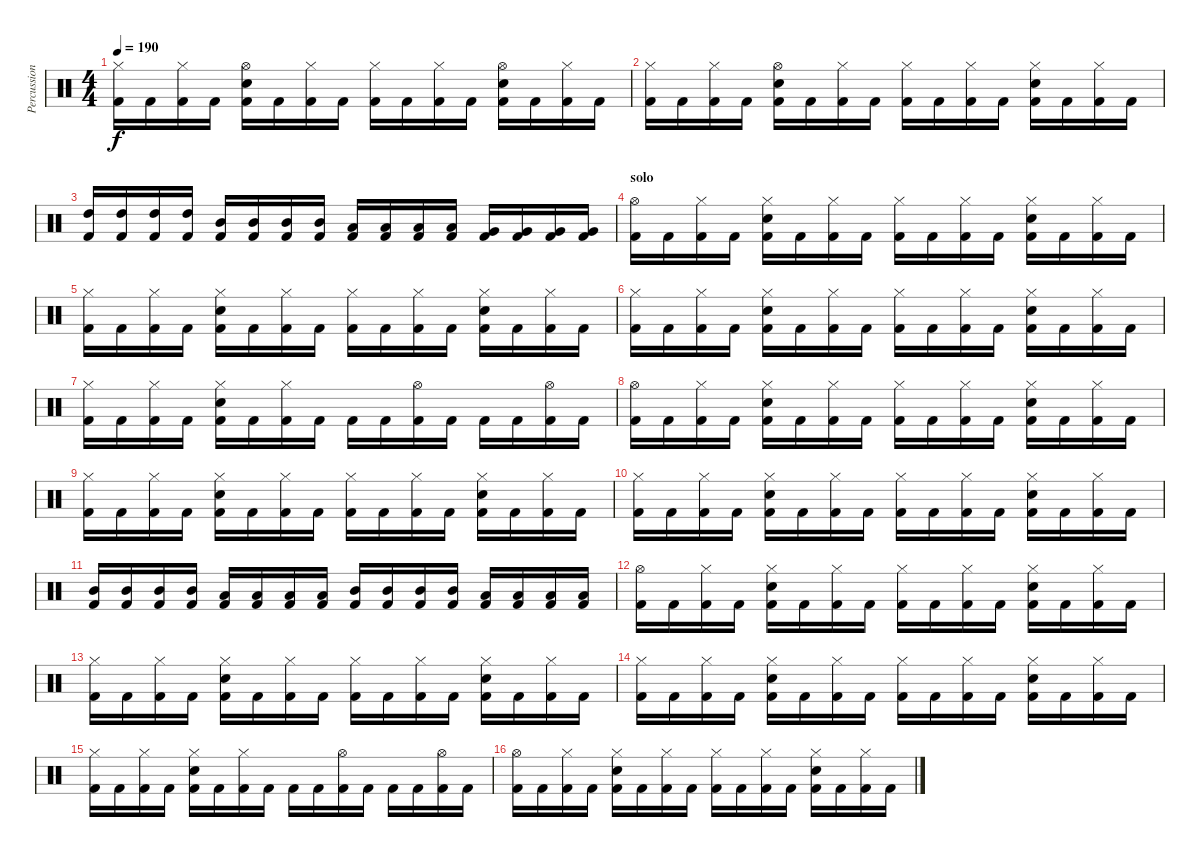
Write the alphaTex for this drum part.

\track ("Percussion" "Percussion") {instrument percussion}
\staff {score}
\articulation defaults
\ts (4 4)
\tempo 190
\clef neutral
\ks c
("Hi-Hat (closed)" "Kick (hit) 2").16{dy f} "Kick (hit) 2".16 ("Hi-Hat (closed)" "Kick (hit) 2").16 "Kick (hit) 2".16 ("Hi-Hat (open)" "Snare (hit) 2" "Kick (hit) 2").16 "Kick (hit) 2".16 ("Hi-Hat (closed)" "Kick (hit) 2").16 "Kick (hit) 2".16 ("Hi-Hat (closed)" "Kick (hit) 2").16 "Kick (hit) 2".16 ("Hi-Hat (closed)" "Kick (hit) 2").16 "Kick (hit) 2".16 ("Hi-Hat (open)" "Snare (hit) 2" "Kick (hit) 2").16 "Kick (hit) 2".16 ("Hi-Hat (closed)" "Kick (hit) 2").16 "Kick (hit) 2".16 |
("Hi-Hat (closed)" "Kick (hit) 2").16 "Kick (hit) 2".16 ("Hi-Hat (closed)" "Kick (hit) 2").16 "Kick (hit) 2".16 ("Hi-Hat (open)" "Snare (hit) 2" "Kick (hit) 2").16 "Kick (hit) 2".16 ("Hi-Hat (closed)" "Kick (hit) 2").16 "Kick (hit) 2".16 ("Hi-Hat (closed)" "Kick (hit) 2").16 "Kick (hit) 2".16 ("Hi-Hat (closed)" "Kick (hit) 2").16 "Kick (hit) 2".16 ("Hi-Hat (closed)" "Snare (hit) 2" "Kick (hit) 2").16 "Kick (hit) 2".16 ("Hi-Hat (closed)" "Kick (hit) 2").16 "Kick (hit) 2".16 |
("High Tom (hit)" "Kick (hit) 2").16 ("High Tom (hit)" "Kick (hit) 2").16 ("High Tom (hit)" "Kick (hit) 2").16 ("High Tom (hit)" "Kick (hit) 2").16 ("Mid Tom (hit)" "Kick (hit) 2").16 ("Mid Tom (hit)" "Kick (hit) 2").16 ("Mid Tom (hit)" "Kick (hit) 2").16 ("Mid Tom (hit)" "Kick (hit) 2").16 ("Low Tom (hit)" "Kick (hit) 2").16 ("Low Tom (hit)" "Kick (hit) 2").16 ("Low Tom (hit)" "Kick (hit) 2").16 ("Low Tom (hit)" "Kick (hit) 2").16 ("Very Low Tom (hit)" "Kick (hit) 2").16 ("Very Low Tom (hit)" "Kick (hit) 2").16 ("Very Low Tom (hit)" "Kick (hit) 2").16 ("Very Low Tom (hit)" "Kick (hit) 2").16 |
\section ("" "solo")
("Hi-Hat (open)" "Kick (hit) 2").16 "Kick (hit) 2".16 ("Hi-Hat (closed)" "Kick (hit) 2").16 "Kick (hit) 2".16 ("Hi-Hat (closed)" "Snare (hit) 2" "Kick (hit) 2").16 "Kick (hit) 2".16 ("Hi-Hat (closed)" "Kick (hit) 2").16 "Kick (hit) 2".16 ("Hi-Hat (closed)" "Kick (hit) 2").16 "Kick (hit) 2".16 ("Hi-Hat (closed)" "Kick (hit) 2").16 "Kick (hit) 2".16 ("Hi-Hat (closed)" "Snare (hit) 2" "Kick (hit) 2").16 "Kick (hit) 2".16 ("Hi-Hat (closed)" "Kick (hit) 2").16 "Kick (hit) 2".16 |
("Hi-Hat (closed)" "Kick (hit) 2").16 "Kick (hit) 2".16 ("Hi-Hat (closed)" "Kick (hit) 2").16 "Kick (hit) 2".16 ("Hi-Hat (closed)" "Snare (hit) 2" "Kick (hit) 2").16 "Kick (hit) 2".16 ("Hi-Hat (closed)" "Kick (hit) 2").16 "Kick (hit) 2".16 ("Hi-Hat (closed)" "Kick (hit) 2").16 "Kick (hit) 2".16 ("Hi-Hat (closed)" "Kick (hit) 2").16 "Kick (hit) 2".16 ("Hi-Hat (closed)" "Snare (hit) 2" "Kick (hit) 2").16 "Kick (hit) 2".16 ("Hi-Hat (closed)" "Kick (hit) 2").16 "Kick (hit) 2".16 |
("Hi-Hat (closed)" "Kick (hit) 2").16 "Kick (hit) 2".16 ("Hi-Hat (closed)" "Kick (hit) 2").16 "Kick (hit) 2".16 ("Hi-Hat (closed)" "Snare (hit) 2" "Kick (hit) 2").16 "Kick (hit) 2".16 ("Hi-Hat (closed)" "Kick (hit) 2").16 "Kick (hit) 2".16 ("Hi-Hat (closed)" "Kick (hit) 2").16 "Kick (hit) 2".16 ("Hi-Hat (closed)" "Kick (hit) 2").16 "Kick (hit) 2".16 ("Hi-Hat (closed)" "Snare (hit) 2" "Kick (hit) 2").16 "Kick (hit) 2".16 ("Hi-Hat (closed)" "Kick (hit) 2").16 "Kick (hit) 2".16 |
("Hi-Hat (closed)" "Kick (hit) 2").16 "Kick (hit) 2".16 ("Hi-Hat (closed)" "Kick (hit) 2").16 "Kick (hit) 2".16 ("Hi-Hat (closed)" "Snare (hit) 2" "Kick (hit) 2").16 "Kick (hit) 2".16 ("Hi-Hat (closed)" "Kick (hit) 2").16 "Kick (hit) 2".16 "Kick (hit) 2".16 "Kick (hit) 2".16 ("Hi-Hat (open)" "Kick (hit) 2").16 "Kick (hit) 2".16 "Kick (hit) 2".16 "Kick (hit) 2".16 ("Hi-Hat (open)" "Kick (hit) 2").16 "Kick (hit) 2".16 |
("Hi-Hat (open)" "Kick (hit) 2").16 "Kick (hit) 2".16 ("Hi-Hat (closed)" "Kick (hit) 2").16 "Kick (hit) 2".16 ("Hi-Hat (closed)" "Snare (hit) 2" "Kick (hit) 2").16 "Kick (hit) 2".16 ("Hi-Hat (closed)" "Kick (hit) 2").16 "Kick (hit) 2".16 ("Hi-Hat (closed)" "Kick (hit) 2").16 "Kick (hit) 2".16 ("Hi-Hat (closed)" "Kick (hit) 2").16 "Kick (hit) 2".16 ("Hi-Hat (closed)" "Snare (hit) 2" "Kick (hit) 2").16 "Kick (hit) 2".16 ("Hi-Hat (closed)" "Kick (hit) 2").16 "Kick (hit) 2".16 |
("Hi-Hat (closed)" "Kick (hit) 2").16 "Kick (hit) 2".16 ("Hi-Hat (closed)" "Kick (hit) 2").16 "Kick (hit) 2".16 ("Hi-Hat (closed)" "Snare (hit) 2" "Kick (hit) 2").16 "Kick (hit) 2".16 ("Hi-Hat (closed)" "Kick (hit) 2").16 "Kick (hit) 2".16 ("Hi-Hat (closed)" "Kick (hit) 2").16 "Kick (hit) 2".16 ("Hi-Hat (closed)" "Kick (hit) 2").16 "Kick (hit) 2".16 ("Hi-Hat (closed)" "Snare (hit) 2" "Kick (hit) 2").16 "Kick (hit) 2".16 ("Hi-Hat (closed)" "Kick (hit) 2").16 "Kick (hit) 2".16 |
("Hi-Hat (closed)" "Kick (hit) 2").16 "Kick (hit) 2".16 ("Hi-Hat (closed)" "Kick (hit) 2").16 "Kick (hit) 2".16 ("Hi-Hat (closed)" "Snare (hit) 2" "Kick (hit) 2").16 "Kick (hit) 2".16 ("Hi-Hat (closed)" "Kick (hit) 2").16 "Kick (hit) 2".16 ("Hi-Hat (closed)" "Kick (hit) 2").16 "Kick (hit) 2".16 ("Hi-Hat (closed)" "Kick (hit) 2").16 "Kick (hit) 2".16 ("Hi-Hat (closed)" "Snare (hit) 2" "Kick (hit) 2").16 "Kick (hit) 2".16 ("Hi-Hat (closed)" "Kick (hit) 2").16 "Kick (hit) 2".16 |
("Mid Tom (hit)" "Kick (hit) 2").16 ("Mid Tom (hit)" "Kick (hit) 2").16 ("Mid Tom (hit)" "Kick (hit) 2").16 ("Mid Tom (hit)" "Kick (hit) 2").16 ("Low Tom (hit)" "Kick (hit) 2").16 ("Low Tom (hit)" "Kick (hit) 2").16 ("Low Tom (hit)" "Kick (hit) 2").16 ("Low Tom (hit)" "Kick (hit) 2").16 ("Mid Tom (hit)" "Kick (hit) 2").16 ("Mid Tom (hit)" "Kick (hit) 2").16 ("Mid Tom (hit)" "Kick (hit) 2").16 ("Mid Tom (hit)" "Kick (hit) 2").16 ("Low Tom (hit)" "Kick (hit) 2").16 ("Low Tom (hit)" "Kick (hit) 2").16 ("Low Tom (hit)" "Kick (hit) 2").16 ("Low Tom (hit)" "Kick (hit) 2").16 |
("Hi-Hat (open)" "Kick (hit) 2").16 "Kick (hit) 2".16 ("Hi-Hat (closed)" "Kick (hit) 2").16 "Kick (hit) 2".16 ("Hi-Hat (closed)" "Snare (hit) 2" "Kick (hit) 2").16 "Kick (hit) 2".16 ("Hi-Hat (closed)" "Kick (hit) 2").16 "Kick (hit) 2".16 ("Hi-Hat (closed)" "Kick (hit) 2").16 "Kick (hit) 2".16 ("Hi-Hat (closed)" "Kick (hit) 2").16 "Kick (hit) 2".16 ("Hi-Hat (closed)" "Snare (hit) 2" "Kick (hit) 2").16 "Kick (hit) 2".16 ("Hi-Hat (closed)" "Kick (hit) 2").16 "Kick (hit) 2".16 |
("Hi-Hat (closed)" "Kick (hit) 2").16 "Kick (hit) 2".16 ("Hi-Hat (closed)" "Kick (hit) 2").16 "Kick (hit) 2".16 ("Hi-Hat (closed)" "Snare (hit) 2" "Kick (hit) 2").16 "Kick (hit) 2".16 ("Hi-Hat (closed)" "Kick (hit) 2").16 "Kick (hit) 2".16 ("Hi-Hat (closed)" "Kick (hit) 2").16 "Kick (hit) 2".16 ("Hi-Hat (closed)" "Kick (hit) 2").16 "Kick (hit) 2".16 ("Hi-Hat (closed)" "Snare (hit) 2" "Kick (hit) 2").16 "Kick (hit) 2".16 ("Hi-Hat (closed)" "Kick (hit) 2").16 "Kick (hit) 2".16 |
("Hi-Hat (closed)" "Kick (hit) 2").16 "Kick (hit) 2".16 ("Hi-Hat (closed)" "Kick (hit) 2").16 "Kick (hit) 2".16 ("Hi-Hat (closed)" "Snare (hit) 2" "Kick (hit) 2").16 "Kick (hit) 2".16 ("Hi-Hat (closed)" "Kick (hit) 2").16 "Kick (hit) 2".16 ("Hi-Hat (closed)" "Kick (hit) 2").16 "Kick (hit) 2".16 ("Hi-Hat (closed)" "Kick (hit) 2").16 "Kick (hit) 2".16 ("Hi-Hat (closed)" "Snare (hit) 2" "Kick (hit) 2").16 "Kick (hit) 2".16 ("Hi-Hat (closed)" "Kick (hit) 2").16 "Kick (hit) 2".16 |
("Hi-Hat (closed)" "Kick (hit) 2").16 "Kick (hit) 2".16 ("Hi-Hat (closed)" "Kick (hit) 2").16 "Kick (hit) 2".16 ("Hi-Hat (closed)" "Snare (hit) 2" "Kick (hit) 2").16 "Kick (hit) 2".16 ("Hi-Hat (closed)" "Kick (hit) 2").16 "Kick (hit) 2".16 "Kick (hit) 2".16 "Kick (hit) 2".16 ("Hi-Hat (open)" "Kick (hit) 2").16 "Kick (hit) 2".16 "Kick (hit) 2".16 "Kick (hit) 2".16 ("Hi-Hat (open)" "Kick (hit) 2").16 "Kick (hit) 2".16 |
("Hi-Hat (open)" "Kick (hit) 2").16 "Kick (hit) 2".16 ("Hi-Hat (closed)" "Kick (hit) 2").16 "Kick (hit) 2".16 ("Hi-Hat (closed)" "Snare (hit) 2" "Kick (hit) 2").16 "Kick (hit) 2".16 ("Hi-Hat (closed)" "Kick (hit) 2").16 "Kick (hit) 2".16 ("Hi-Hat (closed)" "Kick (hit) 2").16 "Kick (hit) 2".16 ("Hi-Hat (closed)" "Kick (hit) 2").16 "Kick (hit) 2".16 ("Hi-Hat (closed)" "Snare (hit) 2" "Kick (hit) 2").16 "Kick (hit) 2".16 ("Hi-Hat (closed)" "Kick (hit) 2").16 "Kick (hit) 2".16
